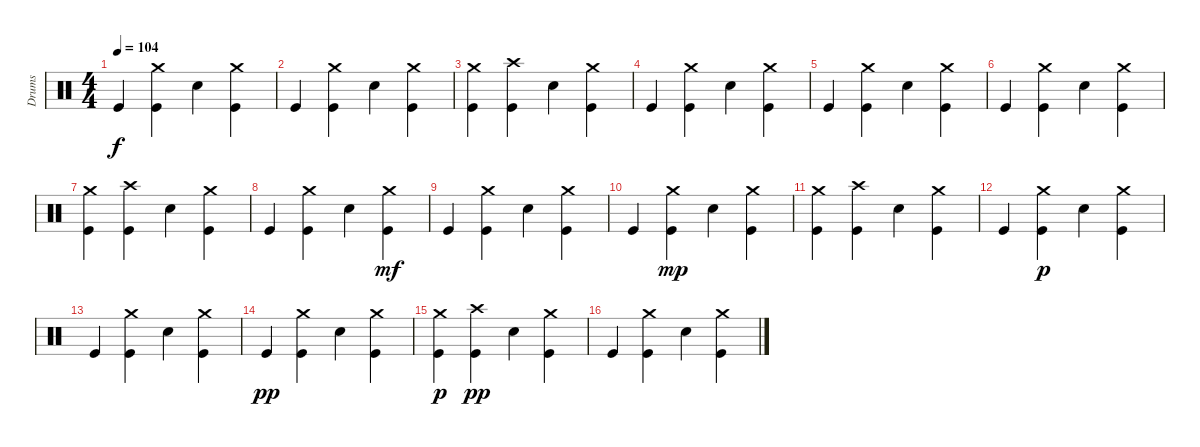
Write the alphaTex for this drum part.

\track ("Drums" "Drums") {instrument percussion}
\staff {score}
\articulation defaults
\ts (4 4)
\tempo 104
\clef neutral
\ks c "Kick (hit)".4{dy f}
("Kick (hit)" "Crash medium (hit)").4 "Electric Snare (hit)".4 ("Kick (hit)" "Crash medium (hit)").4 |
"Kick (hit)".4 ("Kick (hit)" "Crash medium (hit)").4 "Electric Snare (hit)".4 ("Kick (hit)" "Crash medium (hit)").4 |
("Kick (hit)" "Crash medium (hit)").4 ("Kick (hit)" "Crash high (hit)").4 "Electric Snare (hit)".4 ("Kick (hit)" "Crash medium (hit)").4 |
"Kick (hit)".4 ("Kick (hit)" "Crash medium (hit)").4 "Electric Snare (hit)".4 ("Kick (hit)" "Crash medium (hit)").4 |
"Kick (hit)".4 ("Kick (hit)" "Crash medium (hit)").4 "Electric Snare (hit)".4 ("Kick (hit)" "Crash medium (hit)").4 |
"Kick (hit)".4 ("Kick (hit)" "Crash medium (hit)").4 "Electric Snare (hit)".4 ("Kick (hit)" "Crash medium (hit)").4 |
("Kick (hit)" "Crash medium (hit)").4 ("Kick (hit)" "Crash high (hit)").4 "Electric Snare (hit)".4 ("Kick (hit)" "Crash medium (hit)").4 |
"Kick (hit)".4 ("Kick (hit)" "Crash medium (hit)").4 "Electric Snare (hit)".4 ("Kick (hit)" "Crash medium (hit)").4{dy mf} |
"Kick (hit)".4 ("Kick (hit)" "Crash medium (hit)").4 "Electric Snare (hit)".4 ("Kick (hit)" "Crash medium (hit)").4 |
"Kick (hit)".4 ("Kick (hit)" "Crash medium (hit)").4{dy mp} "Electric Snare (hit)".4 ("Kick (hit)" "Crash medium (hit)").4 |
("Kick (hit)" "Crash medium (hit)").4 ("Kick (hit)" "Crash high (hit)").4 "Electric Snare (hit)".4 ("Kick (hit)" "Crash medium (hit)").4 |
"Kick (hit)".4 ("Kick (hit)" "Crash medium (hit)").4{dy p} "Electric Snare (hit)".4 ("Kick (hit)" "Crash medium (hit)").4 |
"Kick (hit)".4 ("Kick (hit)" "Crash medium (hit)").4 "Electric Snare (hit)".4 ("Kick (hit)" "Crash medium (hit)").4 |
"Kick (hit)".4{dy pp} ("Kick (hit)" "Crash medium (hit)").4 "Electric Snare (hit)".4 ("Kick (hit)" "Crash medium (hit)").4 |
("Kick (hit)" "Crash medium (hit)").4{dy p} ("Kick (hit)" "Crash high (hit)").4{dy pp} "Electric Snare (hit)".4 ("Kick (hit)" "Crash medium (hit)").4 |
"Kick (hit)".4 ("Kick (hit)" "Crash medium (hit)").4 "Electric Snare (hit)".4 ("Kick (hit)" "Crash medium (hit)").4
